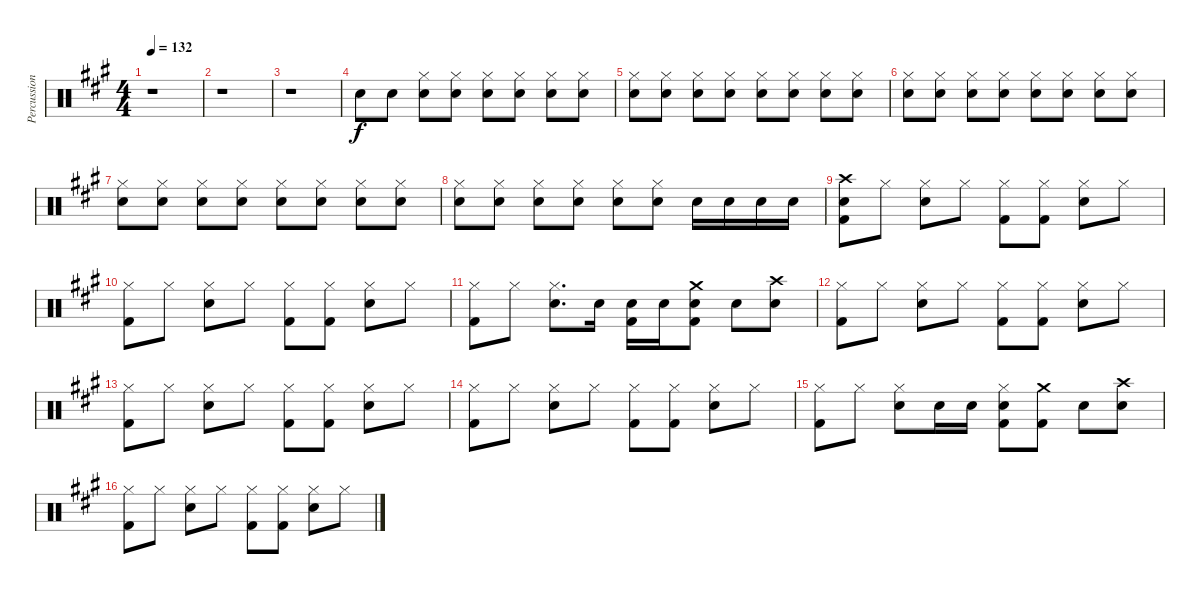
\track ("Percussion" "Percussion") {instrument percussion}
\staff {score}
\articulation defaults
\ts (4 4)
\tempo 132
\clef neutral
\ks a
r.1{dy f} |
r.1 |
r.1 |
"Snare (hit) 2".8 "Snare (hit) 2".8 ("Hi-Hat (closed)" "Snare (hit) 2").8 ("Hi-Hat (closed)" "Snare (hit) 2").8 ("Hi-Hat (closed)" "Snare (hit) 2").8 ("Hi-Hat (closed)" "Snare (hit) 2").8 ("Hi-Hat (closed)" "Snare (hit) 2").8 ("Hi-Hat (closed)" "Snare (hit) 2").8 |
("Hi-Hat (closed)" "Snare (hit) 2").8 ("Hi-Hat (closed)" "Snare (hit) 2").8 ("Hi-Hat (closed)" "Snare (hit) 2").8 ("Hi-Hat (closed)" "Snare (hit) 2").8 ("Hi-Hat (closed)" "Snare (hit) 2").8 ("Hi-Hat (closed)" "Snare (hit) 2").8 ("Hi-Hat (closed)" "Snare (hit) 2").8 ("Hi-Hat (closed)" "Snare (hit) 2").8 |
("Hi-Hat (closed)" "Snare (hit) 2").8 ("Hi-Hat (closed)" "Snare (hit) 2").8 ("Hi-Hat (closed)" "Snare (hit) 2").8 ("Hi-Hat (closed)" "Snare (hit) 2").8 ("Hi-Hat (closed)" "Snare (hit) 2").8 ("Hi-Hat (closed)" "Snare (hit) 2").8 ("Hi-Hat (closed)" "Snare (hit) 2").8 ("Hi-Hat (closed)" "Snare (hit) 2").8 |
("Hi-Hat (closed)" "Snare (hit) 2").8 ("Hi-Hat (closed)" "Snare (hit) 2").8 ("Hi-Hat (closed)" "Snare (hit) 2").8 ("Hi-Hat (closed)" "Snare (hit) 2").8 ("Hi-Hat (closed)" "Snare (hit) 2").8 ("Hi-Hat (closed)" "Snare (hit) 2").8 ("Hi-Hat (closed)" "Snare (hit) 2").8 ("Hi-Hat (closed)" "Snare (hit) 2").8 |
("Hi-Hat (closed)" "Snare (hit) 2").8 ("Hi-Hat (closed)" "Snare (hit) 2").8 ("Hi-Hat (closed)" "Snare (hit) 2").8 ("Hi-Hat (closed)" "Snare (hit) 2").8 ("Hi-Hat (closed)" "Snare (hit) 2").8 ("Hi-Hat (closed)" "Snare (hit) 2").8 "Snare (hit) 2".16 "Snare (hit) 2".16 "Snare (hit) 2".16 "Snare (hit) 2".16 |
("Crash high (hit)" "Snare (hit) 2" "Kick (hit) 2").8 "Hi-Hat (closed)".8 ("Hi-Hat (closed)" "Snare (hit) 2").8 "Hi-Hat (closed)".8 ("Hi-Hat (closed)" "Kick (hit) 2").8 ("Hi-Hat (closed)" "Kick (hit) 2").8 ("Hi-Hat (closed)" "Snare (hit) 2").8 "Hi-Hat (closed)".8 |
("Hi-Hat (closed)" "Kick (hit) 2").8 "Hi-Hat (closed)".8 ("Hi-Hat (closed)" "Snare (hit) 2").8 "Hi-Hat (closed)".8 ("Hi-Hat (closed)" "Kick (hit) 2").8 ("Hi-Hat (closed)" "Kick (hit) 2").8 ("Hi-Hat (closed)" "Snare (hit) 2").8 "Hi-Hat (closed)".8 |
("Hi-Hat (closed)" "Kick (hit) 2").8 "Hi-Hat (closed)".8 ("Hi-Hat (closed)" "Snare (hit) 2").8{d} "Snare (hit) 2".16 ("Snare (hit) 2" "Kick (hit) 2").16 "Snare (hit) 2".16 ("Crash medium (hit)" "Snare (hit) 2" "Kick (hit) 2").8 "Snare (hit) 2".8 ("Crash high (hit)" "Snare (hit) 2").8 |
("Hi-Hat (closed)" "Kick (hit) 2").8 "Hi-Hat (closed)".8 ("Hi-Hat (closed)" "Snare (hit) 2").8 "Hi-Hat (closed)".8 ("Hi-Hat (closed)" "Kick (hit) 2").8 ("Hi-Hat (closed)" "Kick (hit) 2").8 ("Hi-Hat (closed)" "Snare (hit) 2").8 "Hi-Hat (closed)".8 |
("Hi-Hat (closed)" "Kick (hit) 2").8 "Hi-Hat (closed)".8 ("Hi-Hat (closed)" "Snare (hit) 2").8 "Hi-Hat (closed)".8 ("Hi-Hat (closed)" "Kick (hit) 2").8 ("Hi-Hat (closed)" "Kick (hit) 2").8 ("Hi-Hat (closed)" "Snare (hit) 2").8 "Hi-Hat (closed)".8 |
("Hi-Hat (closed)" "Kick (hit) 2").8 "Hi-Hat (closed)".8 ("Hi-Hat (closed)" "Snare (hit) 2").8 "Hi-Hat (closed)".8 ("Hi-Hat (closed)" "Kick (hit) 2").8 ("Hi-Hat (closed)" "Kick (hit) 2").8 ("Hi-Hat (closed)" "Snare (hit) 2").8 "Hi-Hat (closed)".8 |
("Hi-Hat (closed)" "Kick (hit) 2").8 "Hi-Hat (closed)".8 ("Hi-Hat (closed)" "Snare (hit) 2").8 "Snare (hit) 2".16 "Snare (hit) 2".16 ("Hi-Hat (closed)" "Snare (hit) 2" "Kick (hit) 2").8 ("Crash medium (hit)" "Kick (hit) 2").8 "Snare (hit) 2".8 ("Crash high (hit)" "Snare (hit) 2").8 |
("Hi-Hat (closed)" "Kick (hit) 2").8 "Hi-Hat (closed)".8 ("Hi-Hat (closed)" "Snare (hit) 2").8 "Hi-Hat (closed)".8 ("Hi-Hat (closed)" "Kick (hit) 2").8 ("Hi-Hat (closed)" "Kick (hit) 2").8 ("Hi-Hat (closed)" "Snare (hit) 2").8 "Hi-Hat (closed)".8
